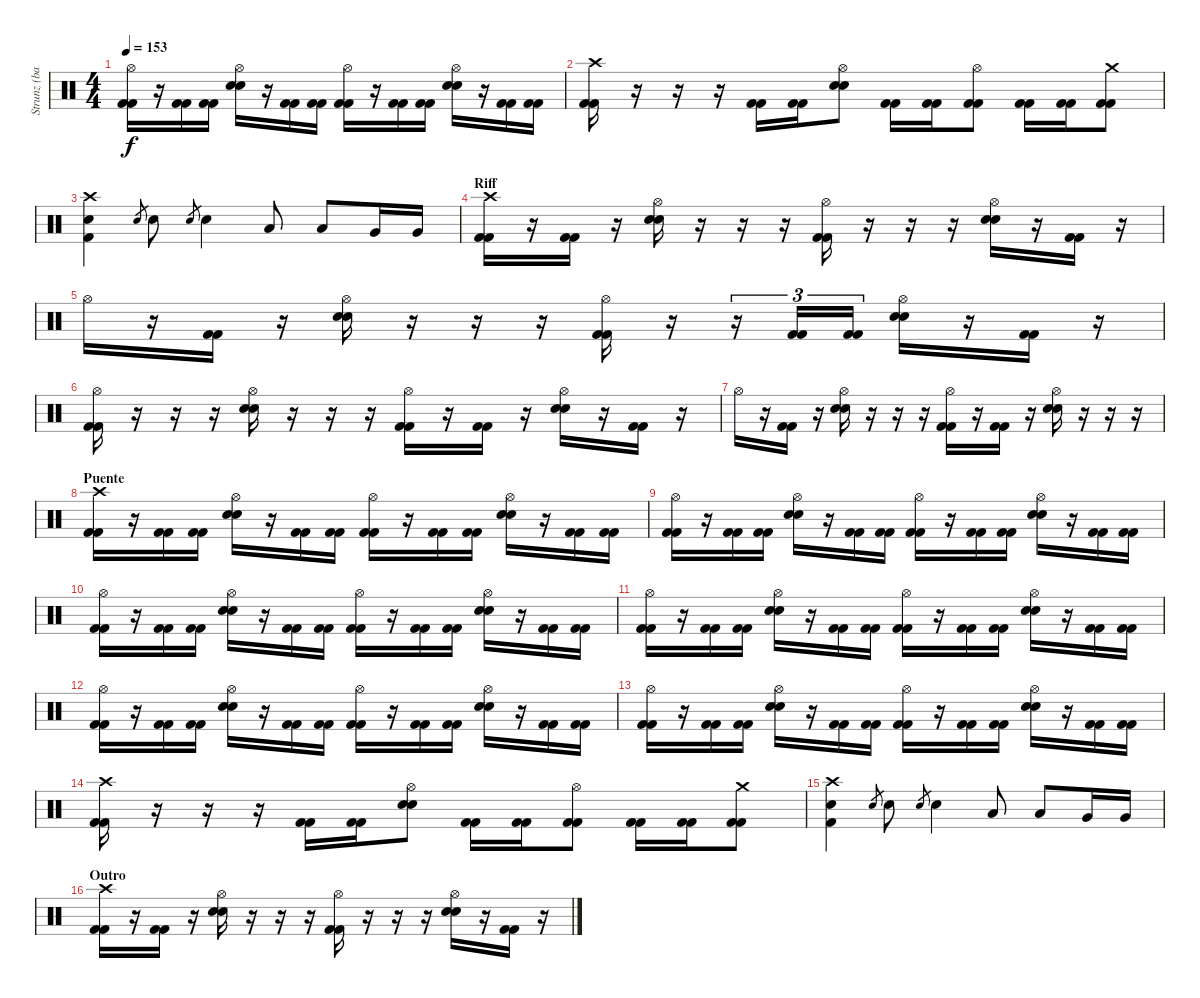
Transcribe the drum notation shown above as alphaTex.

\track ("Strunz (bateria)" "Strunz (ba") {instrument percussion}
\staff {score}
\articulation defaults
\ts (4 4)
\tempo 153
\clef neutral
\ks c
("Hi-Hat (open)" "Kick (hit) 2" "Kick (hit) 2").16{dy f} r.16 ("Kick (hit) 2" "Kick (hit) 2").16 ("Kick (hit) 2" "Kick (hit) 2").16 ("Hi-Hat (open)" "Snare (hit) 2" "Snare (hit) 2").16 r.16 ("Kick (hit) 2" "Kick (hit) 2").16 ("Kick (hit) 2" "Kick (hit) 2").16 ("Hi-Hat (open)" "Kick (hit) 2" "Kick (hit) 2").16 r.16 ("Kick (hit) 2" "Kick (hit) 2").16 ("Kick (hit) 2" "Kick (hit) 2").16 ("Hi-Hat (open)" "Snare (hit) 2" "Snare (hit) 2").16 r.16 ("Kick (hit) 2" "Kick (hit) 2").16 ("Kick (hit) 2" "Kick (hit) 2").16 |
("Crash high (hit)" "Kick (hit) 2" "Kick (hit) 2").16 r.16 r.16 r.16 ("Kick (hit) 2" "Kick (hit) 2").16 ("Kick (hit) 2" "Kick (hit) 2").16 ("Hi-Hat (open)" "Snare (hit) 2" "Snare (hit) 2").8 ("Kick (hit) 2" "Kick (hit) 2").16 ("Kick (hit) 2" "Kick (hit) 2").16 ("Hi-Hat (open)" "Kick (hit) 2" "Kick (hit) 2").8 ("Kick (hit) 2" "Kick (hit) 2").16 ("Kick (hit) 2" "Kick (hit) 2").16 ("Crash medium (hit)" "Kick (hit) 2" "Kick (hit) 2").8 |
("Crash high (hit)" "Snare (hit) 2" "Kick (hit) 2").4 "Snare (hit) 2".8{gr} "Snare (hit) 2".8 "Snare (hit) 2".8{gr} "Snare (hit) 2".4 "Low Tom (hit)".8 "Low Tom (hit)".8 "Very Low Tom (hit)".16 "Very Low Tom (hit)".16 |
\section ("" "Riff")
("Crash high (hit)" "Kick (hit) 2" "Kick (hit) 2").16 r.16 ("Kick (hit) 2" "Kick (hit) 2").16 r.16 ("Hi-Hat (open)" "Snare (hit) 2" "Snare (hit) 2").16 r.16 r.16 r.16 ("Hi-Hat (open)" "Kick (hit) 2" "Kick (hit) 2").16 r.16 r.16 r.16 ("Hi-Hat (open)" "Snare (hit) 2" "Snare (hit) 2").16 r.16 ("Kick (hit) 2" "Kick (hit) 2").16 r.16 |
"Hi-Hat (open)".16 r.16 ("Kick (hit) 2" "Kick (hit) 2").16 r.16 ("Hi-Hat (open)" "Snare (hit) 2" "Snare (hit) 2").16 r.16 r.16 r.16 ("Hi-Hat (open)" "Kick (hit) 2" "Kick (hit) 2").16 r.16 r.16{tu (3 2)} ("Kick (hit) 2" "Kick (hit) 2").16{tu (3 2)} ("Kick (hit) 2" "Kick (hit) 2").16{tu (3 2)} ("Hi-Hat (open)" "Snare (hit) 2" "Snare (hit) 2").16 r.16 ("Kick (hit) 2" "Kick (hit) 2").16 r.16 |
("Hi-Hat (open)" "Kick (hit) 2" "Kick (hit) 2").16 r.16 r.16 r.16 ("Hi-Hat (open)" "Snare (hit) 2" "Snare (hit) 2").16 r.16 r.16 r.16 ("Hi-Hat (open)" "Kick (hit) 2" "Kick (hit) 2").16 r.16 ("Kick (hit) 2" "Kick (hit) 2").16 r.16 ("Hi-Hat (open)" "Snare (hit) 2" "Snare (hit) 2").16 r.16 ("Kick (hit) 2" "Kick (hit) 2").16 r.16 |
"Hi-Hat (open)".16 r.16 ("Kick (hit) 2" "Kick (hit) 2").16 r.16 ("Hi-Hat (open)" "Snare (hit) 2" "Snare (hit) 2").16 r.16 r.16 r.16 ("Hi-Hat (open)" "Kick (hit) 2" "Kick (hit) 2").16 r.16 ("Kick (hit) 2" "Kick (hit) 2").16 r.16 ("Hi-Hat (open)" "Snare (hit) 2" "Snare (hit) 2").16 r.16 r.16 r.16 |
\section ("" "Puente")
("Crash high (hit)" "Kick (hit) 2" "Kick (hit) 2").16 r.16 ("Kick (hit) 2" "Kick (hit) 2").16 ("Kick (hit) 2" "Kick (hit) 2").16 ("Hi-Hat (open)" "Snare (hit) 2" "Snare (hit) 2").16 r.16 ("Kick (hit) 2" "Kick (hit) 2").16 ("Kick (hit) 2" "Kick (hit) 2").16 ("Hi-Hat (open)" "Kick (hit) 2" "Kick (hit) 2").16 r.16 ("Kick (hit) 2" "Kick (hit) 2").16 ("Kick (hit) 2" "Kick (hit) 2").16 ("Hi-Hat (open)" "Snare (hit) 2" "Snare (hit) 2").16 r.16 ("Kick (hit) 2" "Kick (hit) 2").16 ("Kick (hit) 2" "Kick (hit) 2").16 |
("Hi-Hat (open)" "Kick (hit) 2" "Kick (hit) 2").16 r.16 ("Kick (hit) 2" "Kick (hit) 2").16 ("Kick (hit) 2" "Kick (hit) 2").16 ("Hi-Hat (open)" "Snare (hit) 2" "Snare (hit) 2").16 r.16 ("Kick (hit) 2" "Kick (hit) 2").16 ("Kick (hit) 2" "Kick (hit) 2").16 ("Hi-Hat (open)" "Kick (hit) 2" "Kick (hit) 2").16 r.16 ("Kick (hit) 2" "Kick (hit) 2").16 ("Kick (hit) 2" "Kick (hit) 2").16 ("Hi-Hat (open)" "Snare (hit) 2" "Snare (hit) 2").16 r.16 ("Kick (hit) 2" "Kick (hit) 2").16 ("Kick (hit) 2" "Kick (hit) 2").16 |
("Hi-Hat (open)" "Kick (hit) 2" "Kick (hit) 2").16 r.16 ("Kick (hit) 2" "Kick (hit) 2").16 ("Kick (hit) 2" "Kick (hit) 2").16 ("Hi-Hat (open)" "Snare (hit) 2" "Snare (hit) 2").16 r.16 ("Kick (hit) 2" "Kick (hit) 2").16 ("Kick (hit) 2" "Kick (hit) 2").16 ("Hi-Hat (open)" "Kick (hit) 2" "Kick (hit) 2").16 r.16 ("Kick (hit) 2" "Kick (hit) 2").16 ("Kick (hit) 2" "Kick (hit) 2").16 ("Hi-Hat (open)" "Snare (hit) 2" "Snare (hit) 2").16 r.16 ("Kick (hit) 2" "Kick (hit) 2").16 ("Kick (hit) 2" "Kick (hit) 2").16 |
("Hi-Hat (open)" "Kick (hit) 2" "Kick (hit) 2").16 r.16 ("Kick (hit) 2" "Kick (hit) 2").16 ("Kick (hit) 2" "Kick (hit) 2").16 ("Hi-Hat (open)" "Snare (hit) 2" "Snare (hit) 2").16 r.16 ("Kick (hit) 2" "Kick (hit) 2").16 ("Kick (hit) 2" "Kick (hit) 2").16 ("Hi-Hat (open)" "Kick (hit) 2" "Kick (hit) 2").16 r.16 ("Kick (hit) 2" "Kick (hit) 2").16 ("Kick (hit) 2" "Kick (hit) 2").16 ("Hi-Hat (open)" "Snare (hit) 2" "Snare (hit) 2").16 r.16 ("Kick (hit) 2" "Kick (hit) 2").16 ("Kick (hit) 2" "Kick (hit) 2").16 |
("Hi-Hat (open)" "Kick (hit) 2" "Kick (hit) 2").16 r.16 ("Kick (hit) 2" "Kick (hit) 2").16 ("Kick (hit) 2" "Kick (hit) 2").16 ("Hi-Hat (open)" "Snare (hit) 2" "Snare (hit) 2").16 r.16 ("Kick (hit) 2" "Kick (hit) 2").16 ("Kick (hit) 2" "Kick (hit) 2").16 ("Hi-Hat (open)" "Kick (hit) 2" "Kick (hit) 2").16 r.16 ("Kick (hit) 2" "Kick (hit) 2").16 ("Kick (hit) 2" "Kick (hit) 2").16 ("Hi-Hat (open)" "Snare (hit) 2" "Snare (hit) 2").16 r.16 ("Kick (hit) 2" "Kick (hit) 2").16 ("Kick (hit) 2" "Kick (hit) 2").16 |
("Hi-Hat (open)" "Kick (hit) 2" "Kick (hit) 2").16 r.16 ("Kick (hit) 2" "Kick (hit) 2").16 ("Kick (hit) 2" "Kick (hit) 2").16 ("Hi-Hat (open)" "Snare (hit) 2" "Snare (hit) 2").16 r.16 ("Kick (hit) 2" "Kick (hit) 2").16 ("Kick (hit) 2" "Kick (hit) 2").16 ("Hi-Hat (open)" "Kick (hit) 2" "Kick (hit) 2").16 r.16 ("Kick (hit) 2" "Kick (hit) 2").16 ("Kick (hit) 2" "Kick (hit) 2").16 ("Hi-Hat (open)" "Snare (hit) 2" "Snare (hit) 2").16 r.16 ("Kick (hit) 2" "Kick (hit) 2").16 ("Kick (hit) 2" "Kick (hit) 2").16 |
("Crash high (hit)" "Kick (hit) 2" "Kick (hit) 2").16 r.16 r.16 r.16 ("Kick (hit) 2" "Kick (hit) 2").16 ("Kick (hit) 2" "Kick (hit) 2").16 ("Hi-Hat (open)" "Snare (hit) 2" "Snare (hit) 2").8 ("Kick (hit) 2" "Kick (hit) 2").16 ("Kick (hit) 2" "Kick (hit) 2").16 ("Hi-Hat (open)" "Kick (hit) 2" "Kick (hit) 2").8 ("Kick (hit) 2" "Kick (hit) 2").16 ("Kick (hit) 2" "Kick (hit) 2").16 ("Crash medium (hit)" "Kick (hit) 2" "Kick (hit) 2").8 |
("Crash high (hit)" "Snare (hit) 2" "Kick (hit) 2").4 "Snare (hit) 2".8{gr} "Snare (hit) 2".8 "Snare (hit) 2".8{gr} "Snare (hit) 2".4 "Low Tom (hit)".8 "Low Tom (hit)".8 "Very Low Tom (hit)".16 "Very Low Tom (hit)".16 |
\section ("" "Outro")
("Crash high (hit)" "Kick (hit) 2" "Kick (hit) 2").16 r.16 ("Kick (hit) 2" "Kick (hit) 2").16 r.16 ("Hi-Hat (open)" "Snare (hit) 2" "Snare (hit) 2").16 r.16 r.16 r.16 ("Hi-Hat (open)" "Kick (hit) 2" "Kick (hit) 2").16 r.16 r.16 r.16 ("Hi-Hat (open)" "Snare (hit) 2" "Snare (hit) 2").16 r.16 ("Kick (hit) 2" "Kick (hit) 2").16 r.16
